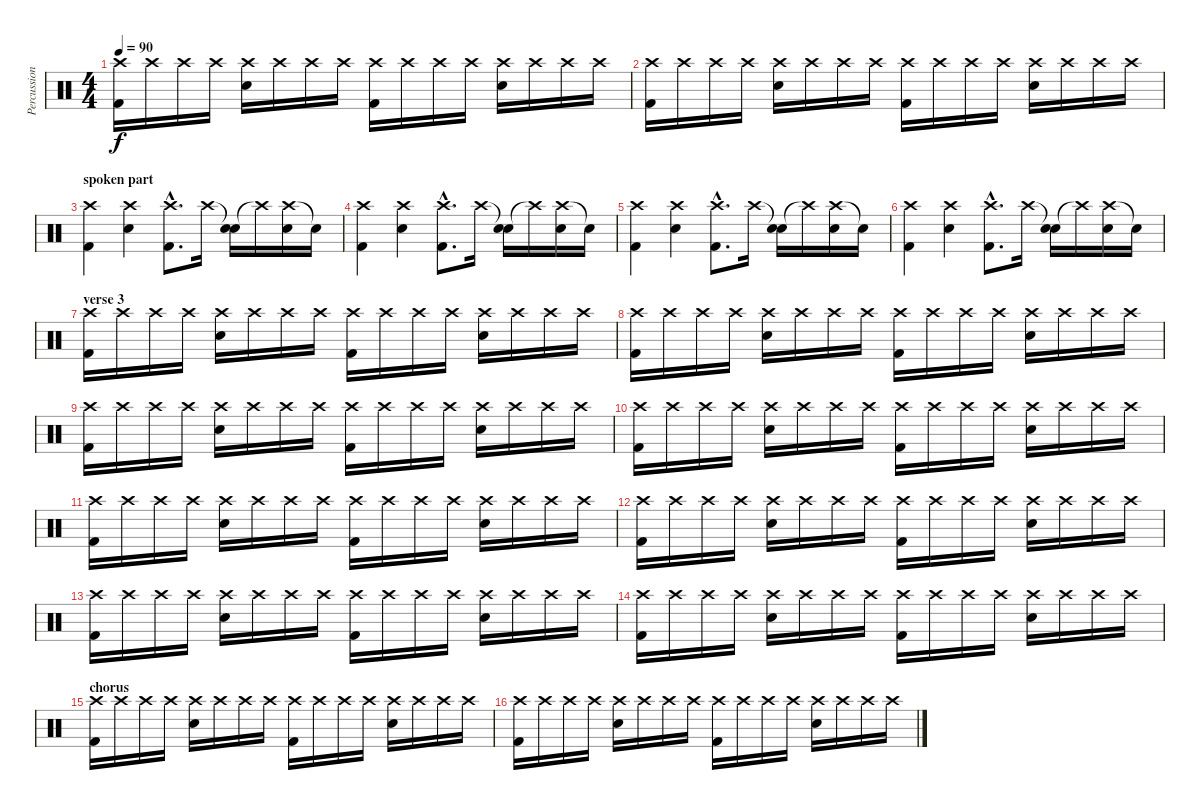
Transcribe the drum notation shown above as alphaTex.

\track ("Percussion" "Percussion") {instrument percussion}
\staff {score}
\articulation defaults
\ts (4 4)
\tempo 90
\clef neutral
\ks c
("Crash high (hit)" "Kick (hit) 2").16{dy f} "Crash high (hit)".16 "Crash high (hit)".16 "Crash high (hit)".16 ("Crash high (hit)" "Electric Snare (hit)").16 "Crash high (hit)".16 "Crash high (hit)".16 "Crash high (hit)".16 ("Crash high (hit)" "Kick (hit) 2").16 "Crash high (hit)".16 "Crash high (hit)".16 "Crash high (hit)".16 ("Crash high (hit)" "Electric Snare (hit)").16 "Crash high (hit)".16 "Crash high (hit)".16 "Crash high (hit)".16 |
("Crash high (hit)" "Kick (hit) 2").16 "Crash high (hit)".16 "Crash high (hit)".16 "Crash high (hit)".16 ("Crash high (hit)" "Electric Snare (hit)").16 "Crash high (hit)".16 "Crash high (hit)".16 "Crash high (hit)".16 ("Crash high (hit)" "Kick (hit) 2").16 "Crash high (hit)".16 "Crash high (hit)".16 "Crash high (hit)".16 ("Crash high (hit)" "Electric Snare (hit)").16 "Crash high (hit)".16 "Crash high (hit)".16 "Crash high (hit)".16 |
\section ("" "spoken part")
("Crash high (hit)" "Kick (hit) 2").4 ("Crash high (hit)" "Electric Snare (hit)").4 ("Crash high (hit)"{hac} "Kick (hit) 2"{hac}).8{d} "Crash high (hit)".16 ("Snare (hit)"{t} "Electric Snare (hit)").16 "Crash high (hit)"{t}.16 ("Crash high (hit)" "Electric Snare (hit)").16 "Snare (hit)"{t}.16 |
("Crash high (hit)" "Kick (hit) 2").4 ("Crash high (hit)" "Electric Snare (hit)").4 ("Crash high (hit)"{hac} "Kick (hit) 2"{hac}).8{d} "Crash high (hit)".16 ("Snare (hit)"{t} "Electric Snare (hit)").16 "Crash high (hit)"{t}.16 ("Crash high (hit)" "Electric Snare (hit)").16 "Snare (hit)"{t}.16 |
("Crash high (hit)" "Kick (hit) 2").4 ("Crash high (hit)" "Electric Snare (hit)").4 ("Crash high (hit)"{hac} "Kick (hit) 2"{hac}).8{d} "Crash high (hit)".16 ("Snare (hit)"{t} "Electric Snare (hit)").16 "Crash high (hit)"{t}.16 ("Crash high (hit)" "Electric Snare (hit)").16 "Snare (hit)"{t}.16 |
("Crash high (hit)" "Kick (hit) 2").4 ("Crash high (hit)" "Electric Snare (hit)").4 ("Crash high (hit)"{hac} "Kick (hit) 2"{hac}).8{d} "Crash high (hit)".16 ("Snare (hit)"{t} "Electric Snare (hit)").16 "Crash high (hit)"{t}.16 ("Crash high (hit)" "Electric Snare (hit)").16 "Snare (hit)"{t}.16 |
\section ("" "verse 3")
("Crash high (hit)" "Kick (hit) 2").16 "Crash high (hit)".16 "Crash high (hit)".16 "Crash high (hit)".16 ("Crash high (hit)" "Electric Snare (hit)").16 "Crash high (hit)".16 "Crash high (hit)".16 "Crash high (hit)".16 ("Crash high (hit)" "Kick (hit) 2").16 "Crash high (hit)".16 "Crash high (hit)".16 "Crash high (hit)".16 ("Crash high (hit)" "Electric Snare (hit)").16 "Crash high (hit)".16 "Crash high (hit)".16 "Crash high (hit)".16 |
("Crash high (hit)" "Kick (hit) 2").16 "Crash high (hit)".16 "Crash high (hit)".16 "Crash high (hit)".16 ("Crash high (hit)" "Electric Snare (hit)").16 "Crash high (hit)".16 "Crash high (hit)".16 "Crash high (hit)".16 ("Crash high (hit)" "Kick (hit) 2").16 "Crash high (hit)".16 "Crash high (hit)".16 "Crash high (hit)".16 ("Crash high (hit)" "Electric Snare (hit)").16 "Crash high (hit)".16 "Crash high (hit)".16 "Crash high (hit)".16 |
("Crash high (hit)" "Kick (hit) 2").16 "Crash high (hit)".16 "Crash high (hit)".16 "Crash high (hit)".16 ("Crash high (hit)" "Electric Snare (hit)").16 "Crash high (hit)".16 "Crash high (hit)".16 "Crash high (hit)".16 ("Crash high (hit)" "Kick (hit) 2").16 "Crash high (hit)".16 "Crash high (hit)".16 "Crash high (hit)".16 ("Crash high (hit)" "Electric Snare (hit)").16 "Crash high (hit)".16 "Crash high (hit)".16 "Crash high (hit)".16 |
("Crash high (hit)" "Kick (hit) 2").16 "Crash high (hit)".16 "Crash high (hit)".16 "Crash high (hit)".16 ("Crash high (hit)" "Electric Snare (hit)").16 "Crash high (hit)".16 "Crash high (hit)".16 "Crash high (hit)".16 ("Crash high (hit)" "Kick (hit) 2").16 "Crash high (hit)".16 "Crash high (hit)".16 "Crash high (hit)".16 ("Crash high (hit)" "Electric Snare (hit)").16 "Crash high (hit)".16 "Crash high (hit)".16 "Crash high (hit)".16 |
("Crash high (hit)" "Kick (hit) 2").16 "Crash high (hit)".16 "Crash high (hit)".16 "Crash high (hit)".16 ("Crash high (hit)" "Electric Snare (hit)").16 "Crash high (hit)".16 "Crash high (hit)".16 "Crash high (hit)".16 ("Crash high (hit)" "Kick (hit) 2").16 "Crash high (hit)".16 "Crash high (hit)".16 "Crash high (hit)".16 ("Crash high (hit)" "Electric Snare (hit)").16 "Crash high (hit)".16 "Crash high (hit)".16 "Crash high (hit)".16 |
("Crash high (hit)" "Kick (hit) 2").16 "Crash high (hit)".16 "Crash high (hit)".16 "Crash high (hit)".16 ("Crash high (hit)" "Electric Snare (hit)").16 "Crash high (hit)".16 "Crash high (hit)".16 "Crash high (hit)".16 ("Crash high (hit)" "Kick (hit) 2").16 "Crash high (hit)".16 "Crash high (hit)".16 "Crash high (hit)".16 ("Crash high (hit)" "Electric Snare (hit)").16 "Crash high (hit)".16 "Crash high (hit)".16 "Crash high (hit)".16 |
("Crash high (hit)" "Kick (hit) 2").16 "Crash high (hit)".16 "Crash high (hit)".16 "Crash high (hit)".16 ("Crash high (hit)" "Electric Snare (hit)").16 "Crash high (hit)".16 "Crash high (hit)".16 "Crash high (hit)".16 ("Crash high (hit)" "Kick (hit) 2").16 "Crash high (hit)".16 "Crash high (hit)".16 "Crash high (hit)".16 ("Crash high (hit)" "Electric Snare (hit)").16 "Crash high (hit)".16 "Crash high (hit)".16 "Crash high (hit)".16 |
("Crash high (hit)" "Kick (hit) 2").16 "Crash high (hit)".16 "Crash high (hit)".16 "Crash high (hit)".16 ("Crash high (hit)" "Electric Snare (hit)").16 "Crash high (hit)".16 "Crash high (hit)".16 "Crash high (hit)".16 ("Crash high (hit)" "Kick (hit) 2").16 "Crash high (hit)".16 "Crash high (hit)".16 "Crash high (hit)".16 ("Crash high (hit)" "Electric Snare (hit)").16 "Crash high (hit)".16 "Crash high (hit)".16 "Crash high (hit)".16 |
\section ("" "chorus")
("Crash high (hit)" "Kick (hit) 2").16 "Crash high (hit)".16 "Crash high (hit)".16 "Crash high (hit)".16 ("Crash high (hit)" "Electric Snare (hit)").16 "Crash high (hit)".16 "Crash high (hit)".16 "Crash high (hit)".16 ("Crash high (hit)" "Kick (hit) 2").16 "Crash high (hit)".16 "Crash high (hit)".16 "Crash high (hit)".16 ("Crash high (hit)" "Electric Snare (hit)").16 "Crash high (hit)".16 "Crash high (hit)".16 "Crash high (hit)".16 |
("Crash high (hit)" "Kick (hit) 2").16 "Crash high (hit)".16 "Crash high (hit)".16 "Crash high (hit)".16 ("Crash high (hit)" "Electric Snare (hit)").16 "Crash high (hit)".16 "Crash high (hit)".16 "Crash high (hit)".16 ("Crash high (hit)" "Kick (hit) 2").16 "Crash high (hit)".16 "Crash high (hit)".16 "Crash high (hit)".16 ("Crash high (hit)" "Electric Snare (hit)").16 "Crash high (hit)".16 "Crash high (hit)".16 "Crash high (hit)".16
